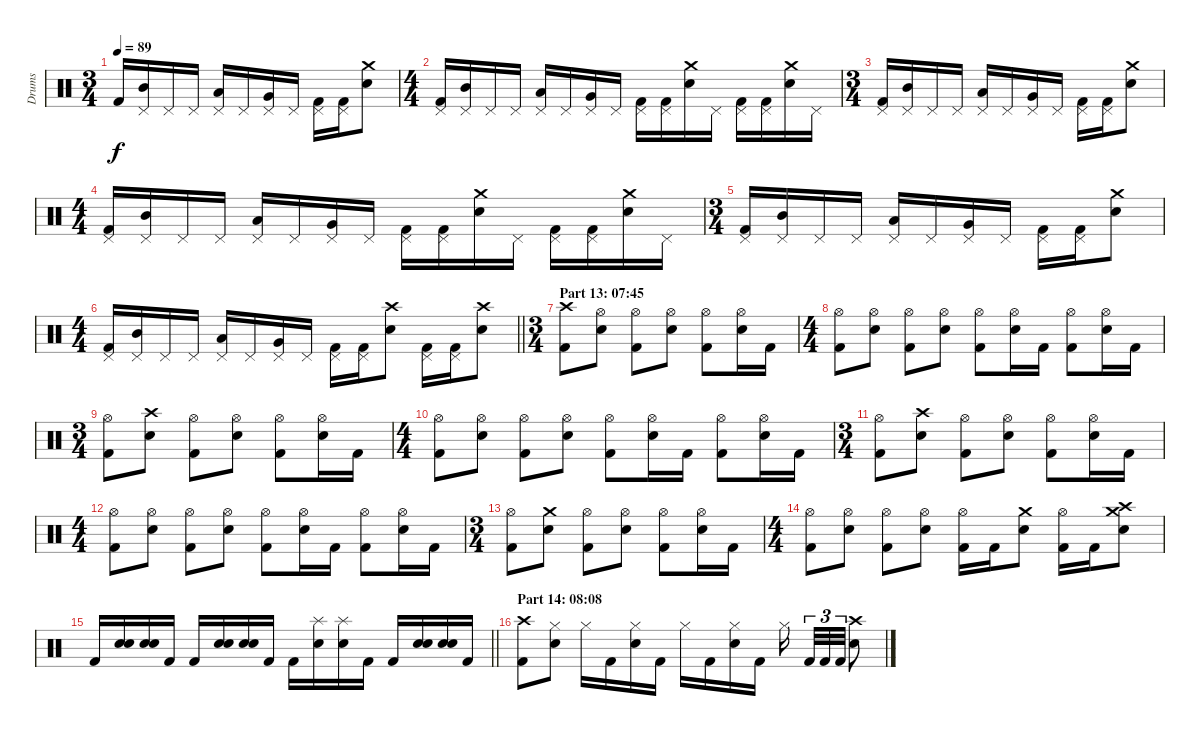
\track ("Drums" "Drums") {instrument percussion}
\staff {score}
\articulation defaults
\ts (3 4)
\tempo 89
\clef neutral
\ks c "Kick (hit) 2".16{dy f}
("Pedal Hi-Hat (hit)" "Mid Tom (hit)").16 "Pedal Hi-Hat (hit)".16 "Pedal Hi-Hat (hit)".16 ("Pedal Hi-Hat (hit)" "Low Tom (hit)").16 "Pedal Hi-Hat (hit)".16 ("Pedal Hi-Hat (hit)" "Very Low Tom (hit)").16 "Pedal Hi-Hat (hit)".16 ("Pedal Hi-Hat (hit)" "Kick (hit) 2").16 ("Pedal Hi-Hat (hit)" "Kick (hit) 2").16 ("Crash medium (hit)" "Electric Snare (hit)").8 |
\ts (4 4)
("Pedal Hi-Hat (hit)" "Kick (hit) 2").16 ("Pedal Hi-Hat (hit)" "Mid Tom (hit)").16 "Pedal Hi-Hat (hit)".16 "Pedal Hi-Hat (hit)".16 ("Pedal Hi-Hat (hit)" "Low Tom (hit)").16 "Pedal Hi-Hat (hit)".16 ("Pedal Hi-Hat (hit)" "Very Low Tom (hit)").16 "Pedal Hi-Hat (hit)".16 ("Pedal Hi-Hat (hit)" "Kick (hit) 2").16 ("Pedal Hi-Hat (hit)" "Kick (hit) 2").16 ("Crash medium (hit)" "Electric Snare (hit)").16 "Pedal Hi-Hat (hit)".16 ("Pedal Hi-Hat (hit)" "Kick (hit) 2").16 ("Pedal Hi-Hat (hit)" "Kick (hit) 2").16 ("Crash medium (hit)" "Electric Snare (hit)").16 "Pedal Hi-Hat (hit)".16 |
\ts (3 4)
("Pedal Hi-Hat (hit)" "Kick (hit) 2").16 ("Pedal Hi-Hat (hit)" "Mid Tom (hit)").16 "Pedal Hi-Hat (hit)".16 "Pedal Hi-Hat (hit)".16 ("Pedal Hi-Hat (hit)" "Low Tom (hit)").16 "Pedal Hi-Hat (hit)".16 ("Pedal Hi-Hat (hit)" "Very Low Tom (hit)").16 "Pedal Hi-Hat (hit)".16 ("Pedal Hi-Hat (hit)" "Kick (hit) 2").16 ("Pedal Hi-Hat (hit)" "Kick (hit) 2").16 ("Crash medium (hit)" "Electric Snare (hit)").8 |
\ts (4 4)
("Pedal Hi-Hat (hit)" "Kick (hit) 2").16 ("Pedal Hi-Hat (hit)" "Mid Tom (hit)").16 "Pedal Hi-Hat (hit)".16 "Pedal Hi-Hat (hit)".16 ("Pedal Hi-Hat (hit)" "Low Tom (hit)").16 "Pedal Hi-Hat (hit)".16 ("Pedal Hi-Hat (hit)" "Very Low Tom (hit)").16 "Pedal Hi-Hat (hit)".16 ("Pedal Hi-Hat (hit)" "Kick (hit) 2").16 ("Pedal Hi-Hat (hit)" "Kick (hit) 2").16 ("Crash medium (hit)" "Electric Snare (hit)").16 "Pedal Hi-Hat (hit)".16 ("Pedal Hi-Hat (hit)" "Kick (hit) 2").16 ("Pedal Hi-Hat (hit)" "Kick (hit) 2").16 ("Crash medium (hit)" "Electric Snare (hit)").16 "Pedal Hi-Hat (hit)".16 |
\ts (3 4)
("Pedal Hi-Hat (hit)" "Kick (hit) 2").16 ("Pedal Hi-Hat (hit)" "Mid Tom (hit)").16 "Pedal Hi-Hat (hit)".16 "Pedal Hi-Hat (hit)".16 ("Pedal Hi-Hat (hit)" "Low Tom (hit)").16 "Pedal Hi-Hat (hit)".16 ("Pedal Hi-Hat (hit)" "Very Low Tom (hit)").16 "Pedal Hi-Hat (hit)".16 ("Pedal Hi-Hat (hit)" "Kick (hit) 2").16 ("Pedal Hi-Hat (hit)" "Kick (hit) 2").16 ("Crash medium (hit)" "Electric Snare (hit)").8 |
\ts (4 4)
\barLineRight lightlight
("Pedal Hi-Hat (hit)" "Kick (hit) 2").16 ("Pedal Hi-Hat (hit)" "Mid Tom (hit)").16 "Pedal Hi-Hat (hit)".16 "Pedal Hi-Hat (hit)".16 ("Pedal Hi-Hat (hit)" "Low Tom (hit)").16 "Pedal Hi-Hat (hit)".16 ("Pedal Hi-Hat (hit)" "Very Low Tom (hit)").16 "Pedal Hi-Hat (hit)".16 ("Pedal Hi-Hat (hit)" "Kick (hit) 2").16 ("Pedal Hi-Hat (hit)" "Kick (hit) 2").16 ("Crash high (hit)" "Electric Snare (hit)").8 ("Pedal Hi-Hat (hit)" "Kick (hit) 2").16 ("Pedal Hi-Hat (hit)" "Kick (hit) 2").16 ("Crash high (hit)" "Electric Snare (hit)").8 |
\ts (3 4)
\section ("" "Part 13: 07:45")
("Crash high (hit)" "Kick (hit) 2").8 ("Hi-Hat (open)" "Electric Snare (hit)").8 ("Hi-Hat (open)" "Kick (hit) 2").8 ("Hi-Hat (open)" "Electric Snare (hit)").8 ("Hi-Hat (open)" "Kick (hit) 2").8 ("Hi-Hat (open)" "Electric Snare (hit)").16 "Kick (hit) 2".16 |
\ts (4 4)
("Hi-Hat (open)" "Kick (hit) 2").8 ("Hi-Hat (open)" "Electric Snare (hit)").8 ("Hi-Hat (open)" "Kick (hit) 2").8 ("Hi-Hat (open)" "Electric Snare (hit)").8 ("Hi-Hat (open)" "Kick (hit) 2").8 ("Hi-Hat (open)" "Electric Snare (hit)").16 "Kick (hit) 2".16 ("Hi-Hat (open)" "Kick (hit) 2").8 ("Hi-Hat (open)" "Electric Snare (hit)").16 "Kick (hit) 2".16 |
\ts (3 4)
("Hi-Hat (open)" "Kick (hit) 2").8 ("Crash high (hit)" "Electric Snare (hit)").8 ("Hi-Hat (open)" "Kick (hit) 2").8 ("Hi-Hat (open)" "Electric Snare (hit)").8 ("Hi-Hat (open)" "Kick (hit) 2").8 ("Hi-Hat (open)" "Electric Snare (hit)").16 "Kick (hit) 2".16 |
\ts (4 4)
("Hi-Hat (open)" "Kick (hit) 2").8 ("Hi-Hat (open)" "Electric Snare (hit)").8 ("Hi-Hat (open)" "Kick (hit) 2").8 ("Hi-Hat (open)" "Electric Snare (hit)").8 ("Hi-Hat (open)" "Kick (hit) 2").8 ("Hi-Hat (open)" "Electric Snare (hit)").16 "Kick (hit) 2".16 ("Hi-Hat (open)" "Kick (hit) 2").8 ("Hi-Hat (open)" "Electric Snare (hit)").16 "Kick (hit) 2".16 |
\ts (3 4)
("Hi-Hat (open)" "Kick (hit) 2").8 ("Crash high (hit)" "Electric Snare (hit)").8 ("Hi-Hat (open)" "Kick (hit) 2").8 ("Hi-Hat (open)" "Electric Snare (hit)").8 ("Hi-Hat (open)" "Kick (hit) 2").8 ("Hi-Hat (open)" "Electric Snare (hit)").16 "Kick (hit) 2".16 |
\ts (4 4)
("Hi-Hat (open)" "Kick (hit) 2").8 ("Hi-Hat (open)" "Electric Snare (hit)").8 ("Hi-Hat (open)" "Kick (hit) 2").8 ("Hi-Hat (open)" "Electric Snare (hit)").8 ("Hi-Hat (open)" "Kick (hit) 2").8 ("Hi-Hat (open)" "Electric Snare (hit)").16 "Kick (hit) 2".16 ("Hi-Hat (open)" "Kick (hit) 2").8 ("Hi-Hat (open)" "Electric Snare (hit)").16 "Kick (hit) 2".16 |
\ts (3 4)
("Hi-Hat (open)" "Kick (hit) 2").8 ("Crash medium (hit)" "Electric Snare (hit)").8 ("Hi-Hat (open)" "Kick (hit) 2").8 ("Hi-Hat (open)" "Electric Snare (hit)").8 ("Hi-Hat (open)" "Kick (hit) 2").8 ("Hi-Hat (open)" "Electric Snare (hit)").16 "Kick (hit) 2".16 |
\ts (4 4)
("Hi-Hat (open)" "Kick (hit) 2").8 ("Hi-Hat (open)" "Electric Snare (hit)").8 ("Hi-Hat (open)" "Kick (hit) 2").8 ("Hi-Hat (open)" "Electric Snare (hit)").8 ("Hi-Hat (open)" "Kick (hit) 2").16 "Kick (hit) 2".16 ("Crash medium (hit)" "Electric Snare (hit)").8 ("Hi-Hat (open)" "Kick (hit) 2").16 "Kick (hit) 2".16 ("Crash medium (hit)" "Crash high (hit)" "Electric Snare (hit)").8 |
\barLineRight lightlight "Kick (hit) 2".16
("Electric Snare (hit)" "Electric Snare (hit)").16{bd 30} ("Electric Snare (hit)" "Electric Snare (hit)").16{bd 30} "Kick (hit) 2".16 "Kick (hit) 2".16 ("Electric Snare (hit)" "Electric Snare (hit)").16{bd 30} ("Electric Snare (hit)" "Electric Snare (hit)").16{bd 30} "Kick (hit) 2".16 "Kick (hit) 2".16 ("Splash (hit)" "Electric Snare (hit)").16 ("Splash (hit)" "Electric Snare (hit)").16 "Kick (hit) 2".16 "Kick (hit) 2".16 ("Electric Snare (hit)" "Electric Snare (hit)").16{bd 30} ("Electric Snare (hit)" "Electric Snare (hit)").16{bd 30} "Kick (hit) 2".16 |
\section ("" "Part 14: 08:08")
("Crash high (hit)" "Kick (hit) 2").8 ("Hi-Hat (closed)" "Electric Snare (hit)").8 "Hi-Hat (closed)".16 "Kick (hit) 2".16 ("Hi-Hat (closed)" "Electric Snare (hit)").16 "Kick (hit) 2".16 "Hi-Hat (closed)".16 "Kick (hit) 2".16 ("Hi-Hat (closed)" "Electric Snare (hit)").16 "Kick (hit) 2".16 "Hi-Hat (closed)".16{beam splitsecondary} "Kick (hit) 2".32{tu (3 2)} "Kick (hit) 2".32{tu (3 2)} "Kick (hit) 2".32{tu (3 2)} ("Crash high (hit)" "Electric Snare (hit)").8
